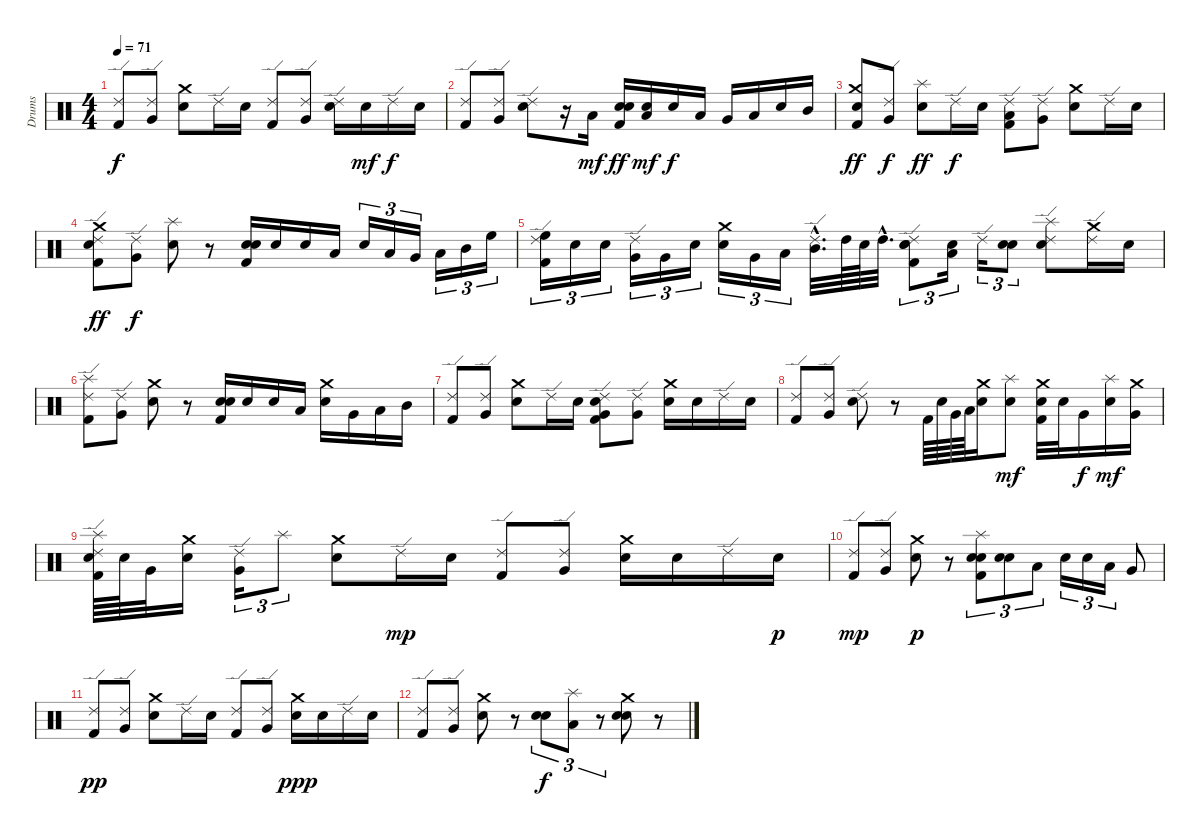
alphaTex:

\track ("Drums" "Drums") {instrument percussion}
\staff {score}
\articulation defaults
\ts (4 4)
\tempo 71
\clef neutral
\ks c
("Ride (edge) 2" "Kick (hit) 2").8{dy f} ("Ride (edge) 2" "Very Low Tom (hit)").8 ("Crash medium (hit)" "Electric Snare (hit)").8 "Ride (edge) 2".16 "Electric Snare (hit)".16 ("Ride (edge) 2" "Kick (hit) 2").8 ("Ride (edge) 2" "Very Low Tom (hit)").8 ("Ride (edge) 2" "Snare (hit) 2").16 "Electric Snare (hit)".16{dy mf} "Ride (edge) 2".16{dy f} "Electric Snare (hit)".16 |
("Ride (edge) 2" "Kick (hit) 2").8 ("Ride (edge) 2" "Very Low Tom (hit)").8 ("Ride (edge) 2" "Electric Snare (hit)").8 r.16 "Low Floor Tom (hit)".16{dy mf} ("Snare (hit) 2" "Electric Snare (hit)" "Kick (hit) 2").16{dy ff} ("Electric Snare (hit)" "Low Floor Tom (hit)").16{dy mf} "Electric Snare (hit)".16{dy f} "Low Floor Tom (hit)".16 "Very Low Tom (hit)".16 "Low Tom (hit)".16 "Electric Snare (hit)".16 "Mid Tom (hit)".16 |
("Crash medium (hit)" "Electric Snare (hit)" "Kick (hit) 2").8{dy ff} ("Ride (edge) 2" "Very Low Tom (hit)").8{dy f} ("Splash (hit)" "Electric Snare (hit)").8{dy ff} "Ride (edge) 2".16{dy f} "Electric Snare (hit)".16 ("Ride (edge) 2" "Low Floor Tom (hit)" "Kick (hit) 2").8 ("Ride (edge) 2" "Very Low Tom (hit)").8 ("Crash medium (hit)" "Electric Snare (hit)").8 "Ride (edge) 2".16 "Electric Snare (hit)".16 |
("Ride (edge) 2" "Crash medium (hit)" "Snare (hit) 2" "Kick (hit) 2").8{dy ff} ("Ride (edge) 2" "Very Low Tom (hit)").8{dy f} ("Splash (hit)" "Electric Snare (hit)").8 r.8 ("Snare (hit) 2" "Electric Snare (hit)" "Kick (hit) 2").16 "Electric Snare (hit)".16 "Snare (hit) 2".16 "Low Floor Tom (hit)".16 "Snare (hit) 2".16{tu (3 2)} "Low Floor Tom (hit)".16{tu (3 2)} "Very Low Tom (hit)".16{tu (3 2)} "Low Tom (hit)".16{tu (3 2)} "Mid Tom (hit)".16{tu (3 2)} "High Floor Tom (hit)".16{tu (3 2)} |
("Ride (edge) 2" "High Floor Tom (hit)" "Kick (hit) 2").16{tu (3 2)} "Electric Snare (hit)".16{tu (3 2)} "Electric Snare (hit)".16{tu (3 2)} ("Ride (edge) 2" "Very Low Tom (hit)").16{tu (3 2)} "Very Low Tom (hit)".16{tu (3 2)} "Electric Snare (hit)".16{tu (3 2)} ("Crash medium (hit)" "Electric Snare (hit)").16{tu (3 2)} "Very Low Tom (hit)".16{tu (3 2)} "Low Tom (hit)".16{tu (3 2)} ("Ride (edge) 2"{hac} "Mid Tom (hit)"{hac}).32{d} "High Tom (hit)".64 "Electric Snare (hit)".64 "High Tom (hit)"{hac}.32{d} ("Ride (edge) 2" "Snare (hit) 2" "Electric Snare (hit)" "Kick (hit) 2").8{tu (3 2)} ("Snare (hit) 2" "Low Floor Tom (hit)").16{tu (3 2)} "Ride (edge) 2".16{tu (3 2)} ("Snare (hit) 2" "Electric Snare (hit)").8{tu (3 2)} ("Ride (edge) 2" "Splash (hit)" "Electric Snare (hit)").8 ("Ride (edge) 2" "Crash medium (hit)").16 "Electric Snare (hit)".16 |
("Ride (edge) 2" "Splash (hit)" "Kick (hit) 2").8 ("Ride (edge) 2" "Very Low Tom (hit)").8 ("Crash medium (hit)" "Electric Snare (hit)").8 r.8 ("Snare (hit) 2" "Electric Snare (hit)" "Kick (hit) 2").16 "Electric Snare (hit)".16 "Snare (hit) 2".16 "Low Floor Tom (hit)".16 ("Crash medium (hit)" "Snare (hit) 2").16 "Very Low Tom (hit)".16 "Low Tom (hit)".16 "Mid Tom (hit)".16 |
("Ride (edge) 2" "Kick (hit) 2").8 ("Ride (edge) 2" "Very Low Tom (hit)").8 ("Crash medium (hit)" "Electric Snare (hit)").8 "Ride (edge) 2".16 "Electric Snare (hit)".16 ("Ride (edge) 2" "Electric Snare (hit)" "Very Low Tom (hit)" "Kick (hit) 2").8 ("Ride (edge) 2" "Very Low Tom (hit)").8 ("Crash medium (hit)" "Electric Snare (hit)").16 "Snare (hit) 2".16 "Ride (edge) 2".16 "Electric Snare (hit)".16 |
("Ride (edge) 2" "Kick (hit) 2").8 ("Ride (edge) 2" "Very Low Tom (hit)").8 ("Ride (edge) 2" "Electric Snare (hit)").8 r.8 "Kick (hit) 2".64 "Electric Snare (hit)".64 "Very Low Tom (hit)".64 "Low Tom (hit)".64 ("Crash medium (hit)" "Snare (hit) 2").16 ("Splash (hit)" "Electric Snare (hit)").8{dy mf} ("Crash medium (hit)" "Snare (hit) 2" "Kick (hit) 2").32 "Electric Snare (hit)".32 "Very Low Tom (hit)".16{dy f} ("Splash (hit)" "Electric Snare (hit)").16{dy mf} ("Crash medium (hit)" "Very Low Tom (hit)").16 |
("Ride (edge) 2" "Splash (hit)" "Snare (hit) 2" "Kick (hit) 2").64 "Electric Snare (hit)".64 "Very Low Tom (hit)".32 ("Crash medium (hit)" "Electric Snare (hit)").16 ("Ride (edge) 2" "Very Low Tom (hit)").16{tu (3 2)} "Splash (hit)".8{tu (3 2)} ("Crash medium (hit)" "Electric Snare (hit)").8 "Ride (edge) 2".16{dy mp} "Electric Snare (hit)".16 ("Ride (edge) 2" "Kick (hit) 2").8 ("Ride (edge) 2" "Very Low Tom (hit)").8 ("Crash medium (hit)" "Electric Snare (hit)").16 "Snare (hit) 2".16 "Ride (edge) 2".16 "Electric Snare (hit)".16{dy p} |
("Ride (edge) 2" "Kick (hit) 2").8{dy mp} ("Ride (edge) 2" "Very Low Tom (hit)").8 ("Crash medium (hit)" "Electric Snare (hit)").8{dy p} r.8 ("Splash (hit)" "Snare (hit) 2" "Electric Snare (hit)" "Kick (hit) 2").8{tu (3 2)} ("Snare (hit) 2" "Electric Snare (hit)").8{tu (3 2)} "Low Floor Tom (hit)".8{tu (3 2)} "Snare (hit) 2".16{tu (3 2)} "Snare (hit) 2".16{tu (3 2)} "Low Floor Tom (hit)".16{tu (3 2)} "Very Low Tom (hit)".8 |
("Ride (edge) 2" "Kick (hit) 2").8{dy pp} ("Ride (edge) 2" "Very Low Tom (hit)").8 ("Crash medium (hit)" "Electric Snare (hit)").8 "Ride (edge) 2".16 "Electric Snare (hit)".16 ("Ride (edge) 2" "Kick (hit) 2").8 ("Ride (edge) 2" "Very Low Tom (hit)").8 ("Crash medium (hit)" "Electric Snare (hit)").16{dy ppp} "Snare (hit) 2".16 "Ride (edge) 2".16 "Electric Snare (hit)".16 |
("Ride (edge) 2" "Kick (hit) 2").8 ("Ride (edge) 2" "Very Low Tom (hit)").8 ("Crash medium (hit)" "Electric Snare (hit)").8 r.8 ("Snare (hit) 2" "Electric Snare (hit)").8{tu (3 2) dy f} ("Splash (hit)" "Low Floor Tom (hit)").8{tu (3 2)} r.8{tu (3 2)} ("Crash medium (hit)" "Snare (hit) 2" "Electric Snare (hit)").8 r.8
